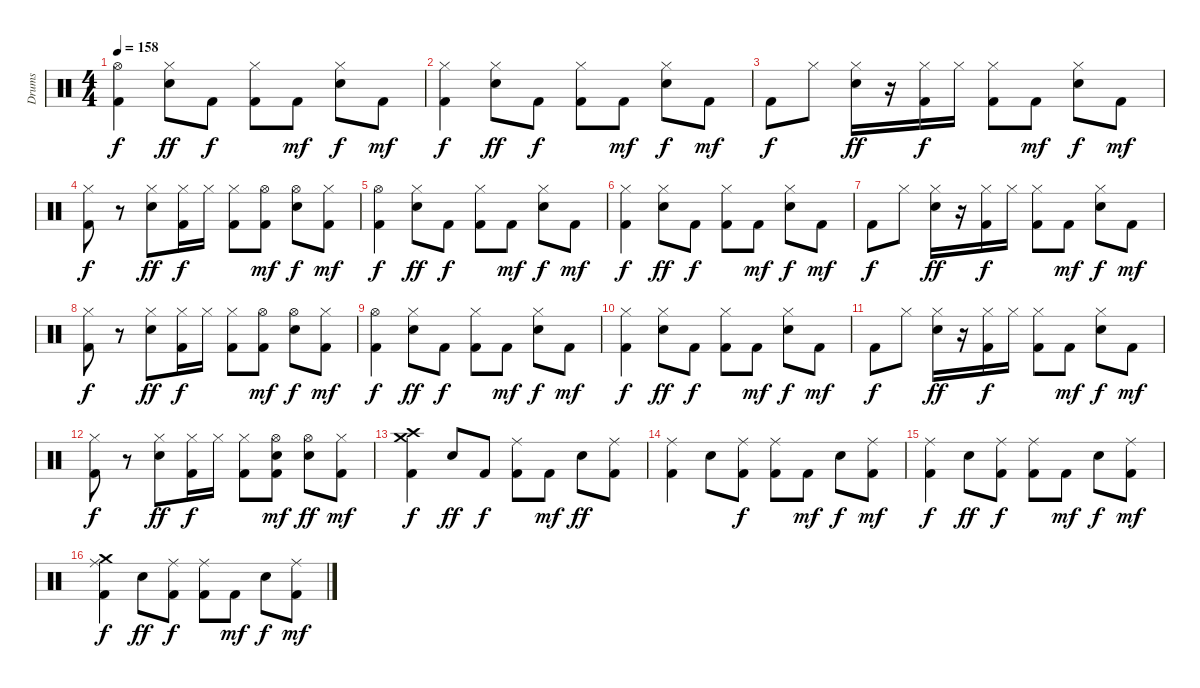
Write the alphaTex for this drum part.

\track ("Drums" "Drums") {instrument percussion}
\staff {score}
\articulation defaults
\ts (4 4)
\tempo 158
\clef neutral
\ks c
("Hi-Hat (open)" "Kick (hit) 2").4{dy f} ("Hi-Hat (closed)" "Snare (hit) 2").8{dy ff} "Kick (hit) 2".8{dy f} ("Hi-Hat (closed)" "Kick (hit) 2").8 "Kick (hit) 2".8{dy mf} ("Hi-Hat (closed)" "Snare (hit) 2").8{dy f} "Kick (hit) 2".8{dy mf} |
("Hi-Hat (closed)" "Kick (hit) 2").4{dy f} ("Hi-Hat (closed)" "Snare (hit) 2").8{dy ff} "Kick (hit) 2".8{dy f} ("Hi-Hat (closed)" "Kick (hit) 2").8 "Kick (hit) 2".8{dy mf} ("Hi-Hat (closed)" "Snare (hit) 2").8{dy f} "Kick (hit) 2".8{dy mf} |
"Kick (hit) 2".8{dy f} "Hi-Hat (closed)".8 ("Hi-Hat (closed)" "Snare (hit) 2").16{dy ff} r.16 ("Hi-Hat (closed)" "Kick (hit) 2").16{dy f} "Hi-Hat (closed)".16 ("Hi-Hat (closed)" "Kick (hit) 2").8 "Kick (hit) 2".8{dy mf} ("Hi-Hat (closed)" "Snare (hit) 2").8{dy f} "Kick (hit) 2".8{dy mf} |
("Hi-Hat (closed)" "Kick (hit) 2").8{dy f} r.8 ("Hi-Hat (closed)" "Snare (hit) 2").8{dy ff} ("Hi-Hat (closed)" "Kick (hit) 2").16{dy f} "Hi-Hat (closed)".16 ("Hi-Hat (closed)" "Kick (hit) 2").8 ("Hi-Hat (open)" "Kick (hit) 2").8{dy mf} ("Hi-Hat (open)" "Snare (hit) 2").8{dy f} ("Hi-Hat (closed)" "Kick (hit) 2").8{dy mf} |
("Hi-Hat (open)" "Kick (hit) 2").4{dy f} ("Hi-Hat (closed)" "Snare (hit) 2").8{dy ff} "Kick (hit) 2".8{dy f} ("Hi-Hat (closed)" "Kick (hit) 2").8 "Kick (hit) 2".8{dy mf} ("Hi-Hat (closed)" "Snare (hit) 2").8{dy f} "Kick (hit) 2".8{dy mf} |
("Hi-Hat (closed)" "Kick (hit) 2").4{dy f} ("Hi-Hat (closed)" "Snare (hit) 2").8{dy ff} "Kick (hit) 2".8{dy f} ("Hi-Hat (closed)" "Kick (hit) 2").8 "Kick (hit) 2".8{dy mf} ("Hi-Hat (closed)" "Snare (hit) 2").8{dy f} "Kick (hit) 2".8{dy mf} |
"Kick (hit) 2".8{dy f} "Hi-Hat (closed)".8 ("Hi-Hat (closed)" "Snare (hit) 2").16{dy ff} r.16 ("Hi-Hat (closed)" "Kick (hit) 2").16{dy f} "Hi-Hat (closed)".16 ("Hi-Hat (closed)" "Kick (hit) 2").8 "Kick (hit) 2".8{dy mf} ("Hi-Hat (closed)" "Snare (hit) 2").8{dy f} "Kick (hit) 2".8{dy mf} |
("Hi-Hat (closed)" "Kick (hit) 2").8{dy f} r.8 ("Hi-Hat (closed)" "Snare (hit) 2").8{dy ff} ("Hi-Hat (closed)" "Kick (hit) 2").16{dy f} "Hi-Hat (closed)".16 ("Hi-Hat (closed)" "Kick (hit) 2").8 ("Hi-Hat (open)" "Kick (hit) 2").8{dy mf} ("Hi-Hat (open)" "Snare (hit) 2").8{dy f} ("Hi-Hat (closed)" "Kick (hit) 2").8{dy mf} |
("Hi-Hat (open)" "Kick (hit) 2").4{dy f} ("Hi-Hat (closed)" "Snare (hit) 2").8{dy ff} "Kick (hit) 2".8{dy f} ("Hi-Hat (closed)" "Kick (hit) 2").8 "Kick (hit) 2".8{dy mf} ("Hi-Hat (closed)" "Snare (hit) 2").8{dy f} "Kick (hit) 2".8{dy mf} |
("Hi-Hat (closed)" "Kick (hit) 2").4{dy f} ("Hi-Hat (closed)" "Snare (hit) 2").8{dy ff} "Kick (hit) 2".8{dy f} ("Hi-Hat (closed)" "Kick (hit) 2").8 "Kick (hit) 2".8{dy mf} ("Hi-Hat (closed)" "Snare (hit) 2").8{dy f} "Kick (hit) 2".8{dy mf} |
"Kick (hit) 2".8{dy f} "Hi-Hat (closed)".8 ("Hi-Hat (closed)" "Snare (hit) 2").16{dy ff} r.16 ("Hi-Hat (closed)" "Kick (hit) 2").16{dy f} "Hi-Hat (closed)".16 ("Hi-Hat (closed)" "Kick (hit) 2").8 "Kick (hit) 2".8{dy mf} ("Hi-Hat (closed)" "Snare (hit) 2").8{dy f} "Kick (hit) 2".8{dy mf} |
("Hi-Hat (closed)" "Kick (hit) 2").8{dy f} r.8 ("Hi-Hat (closed)" "Snare (hit) 2").8{dy ff} ("Hi-Hat (closed)" "Kick (hit) 2").16{dy f} "Hi-Hat (closed)".16 ("Hi-Hat (closed)" "Kick (hit) 2").8 ("Hi-Hat (open)" "Snare (hit) 2" "Kick (hit) 2").8{dy mf} ("Hi-Hat (open)" "Snare (hit) 2").8{dy ff} ("Hi-Hat (closed)" "Kick (hit) 2").8{dy mf} |
("Crash high (hit)" "Crash medium (hit)" "Kick (hit) 2").4{dy f} "Snare (hit) 2".8{dy ff} "Kick (hit) 2".8{dy f} ("Ride (middle)" "Kick (hit) 2").8 "Kick (hit) 2".8{dy mf} "Snare (hit) 2".8{dy ff} ("Ride (middle)" "Kick (hit) 2").8 |
("Ride (middle)" "Kick (hit) 2").4 "Snare (hit) 2".8 ("Ride (middle)" "Kick (hit) 2").8{dy f} ("Ride (middle)" "Kick (hit) 2").8 "Kick (hit) 2".8{dy mf} "Snare (hit) 2".8{dy f} ("Ride (middle)" "Kick (hit) 2").8{dy mf} |
("Ride (middle)" "Kick (hit) 2").4{dy f} "Snare (hit) 2".8{dy ff} ("Ride (middle)" "Kick (hit) 2").8{dy f} ("Ride (middle)" "Kick (hit) 2").8 "Kick (hit) 2".8{dy mf} "Snare (hit) 2".8{dy f} ("Ride (middle)" "Kick (hit) 2").8{dy mf} |
("Ride (middle)" "Crash medium (hit)" "Kick (hit) 2").4{dy f} "Snare (hit) 2".8{dy ff} ("Ride (middle)" "Kick (hit) 2").8{dy f} ("Ride (middle)" "Kick (hit) 2").8 "Kick (hit) 2".8{dy mf} "Snare (hit) 2".8{dy f} ("Ride (middle)" "Kick (hit) 2").8{dy mf}
